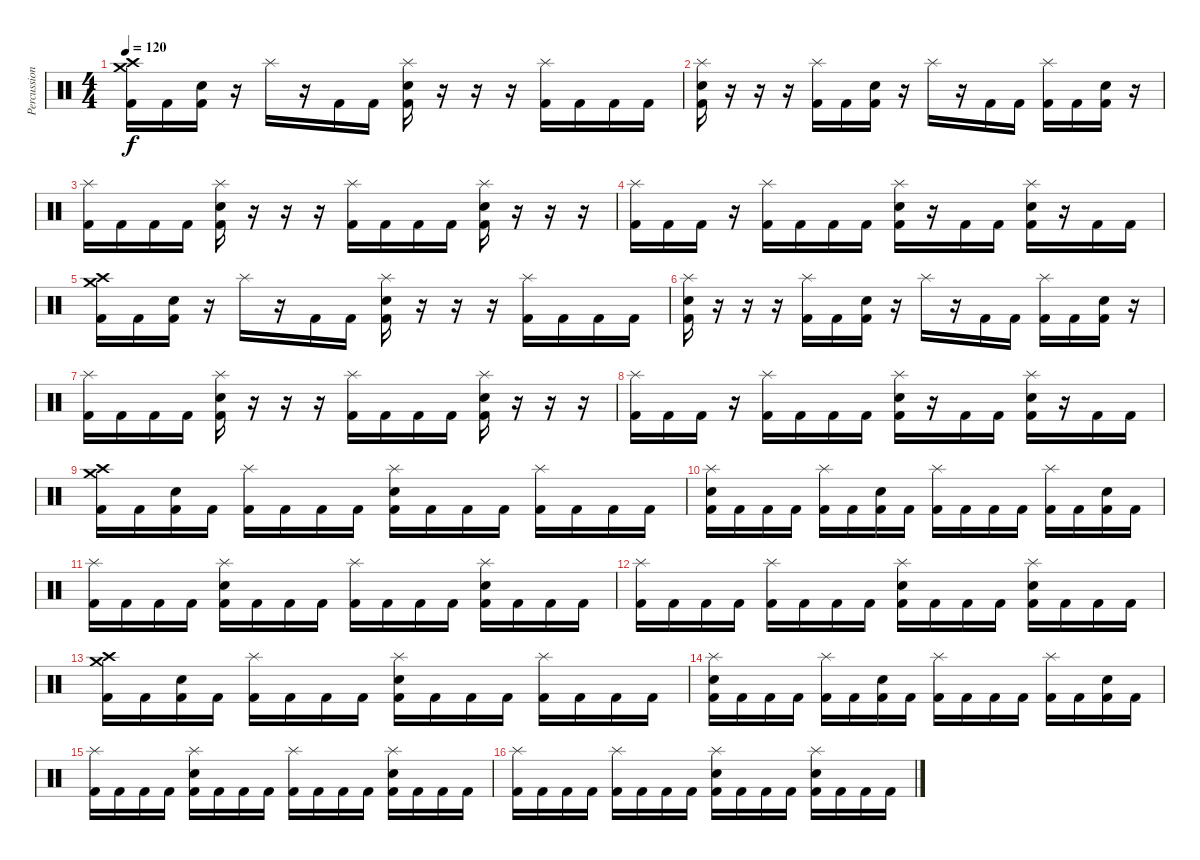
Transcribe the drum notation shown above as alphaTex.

\track ("Percussion" "Percussion") {instrument percussion}
\staff {score}
\articulation defaults
\ts (4 4)
\tempo 120
\clef neutral
\ks c
("Crash medium (hit)" "Crash high (hit)" "Kick (hit) 2").16{dy f} "Kick (hit) 2".16 ("Snare (hit) 2" "Kick (hit) 2").16 r.16 "Splash (hit)".16 r.16 "Kick (hit) 2".16 "Kick (hit) 2".16 ("Splash (hit)" "Snare (hit) 2" "Kick (hit) 2").16 r.16 r.16 r.16 ("Splash (hit)" "Kick (hit) 2").16 "Kick (hit) 2".16 "Kick (hit) 2".16 "Kick (hit) 2".16 |
("Splash (hit)" "Snare (hit) 2" "Kick (hit) 2").16 r.16 r.16 r.16 ("Splash (hit)" "Kick (hit) 2").16 "Kick (hit) 2".16 ("Snare (hit) 2" "Kick (hit) 2").16 r.16 "Splash (hit)".16 r.16 "Kick (hit) 2".16 "Kick (hit) 2".16 ("Splash (hit)" "Kick (hit) 2").16 "Kick (hit) 2".16 ("Snare (hit) 2" "Kick (hit) 2").16 r.16 |
("Splash (hit)" "Kick (hit) 2").16 "Kick (hit) 2".16 "Kick (hit) 2".16 "Kick (hit) 2".16 ("Splash (hit)" "Snare (hit) 2" "Kick (hit) 2").16 r.16 r.16 r.16 ("Splash (hit)" "Kick (hit) 2").16 "Kick (hit) 2".16 "Kick (hit) 2".16 "Kick (hit) 2".16 ("Splash (hit)" "Snare (hit) 2" "Kick (hit) 2").16 r.16 r.16 r.16 |
("Splash (hit)" "Kick (hit) 2").16 "Kick (hit) 2".16 "Kick (hit) 2".16 r.16 ("Splash (hit)" "Kick (hit) 2").16 "Kick (hit) 2".16 "Kick (hit) 2".16 "Kick (hit) 2".16 ("Splash (hit)" "Snare (hit) 2" "Kick (hit) 2").16 r.16 "Kick (hit) 2".16 "Kick (hit) 2".16 ("Splash (hit)" "Snare (hit) 2" "Kick (hit) 2").16 r.16 "Kick (hit) 2".16 "Kick (hit) 2".16 |
("Crash medium (hit)" "Crash high (hit)" "Kick (hit) 2").16 "Kick (hit) 2".16 ("Snare (hit) 2" "Kick (hit) 2").16 r.16 "Splash (hit)".16 r.16 "Kick (hit) 2".16 "Kick (hit) 2".16 ("Splash (hit)" "Snare (hit) 2" "Kick (hit) 2").16 r.16 r.16 r.16 ("Splash (hit)" "Kick (hit) 2").16 "Kick (hit) 2".16 "Kick (hit) 2".16 "Kick (hit) 2".16 |
("Splash (hit)" "Snare (hit) 2" "Kick (hit) 2").16 r.16 r.16 r.16 ("Splash (hit)" "Kick (hit) 2").16 "Kick (hit) 2".16 ("Snare (hit) 2" "Kick (hit) 2").16 r.16 "Splash (hit)".16 r.16 "Kick (hit) 2".16 "Kick (hit) 2".16 ("Splash (hit)" "Kick (hit) 2").16 "Kick (hit) 2".16 ("Snare (hit) 2" "Kick (hit) 2").16 r.16 |
("Splash (hit)" "Kick (hit) 2").16 "Kick (hit) 2".16 "Kick (hit) 2".16 "Kick (hit) 2".16 ("Splash (hit)" "Snare (hit) 2" "Kick (hit) 2").16 r.16 r.16 r.16 ("Splash (hit)" "Kick (hit) 2").16 "Kick (hit) 2".16 "Kick (hit) 2".16 "Kick (hit) 2".16 ("Splash (hit)" "Snare (hit) 2" "Kick (hit) 2").16 r.16 r.16 r.16 |
("Splash (hit)" "Kick (hit) 2").16 "Kick (hit) 2".16 "Kick (hit) 2".16 r.16 ("Splash (hit)" "Kick (hit) 2").16 "Kick (hit) 2".16 "Kick (hit) 2".16 "Kick (hit) 2".16 ("Splash (hit)" "Snare (hit) 2" "Kick (hit) 2").16 r.16 "Kick (hit) 2".16 "Kick (hit) 2".16 ("Splash (hit)" "Snare (hit) 2" "Kick (hit) 2").16 r.16 "Kick (hit) 2".16 "Kick (hit) 2".16 |
("Crash medium (hit)" "Crash high (hit)" "Kick (hit) 2").16 "Kick (hit) 2".16 ("Snare (hit) 2" "Kick (hit) 2").16 "Kick (hit) 2".16 ("Splash (hit)" "Kick (hit) 2").16 "Kick (hit) 2".16 "Kick (hit) 2".16 "Kick (hit) 2".16 ("Splash (hit)" "Snare (hit) 2" "Kick (hit) 2").16 "Kick (hit) 2".16 "Kick (hit) 2".16 "Kick (hit) 2".16 ("Splash (hit)" "Kick (hit) 2").16 "Kick (hit) 2".16 "Kick (hit) 2".16 "Kick (hit) 2".16 |
("Splash (hit)" "Snare (hit) 2" "Kick (hit) 2").16 "Kick (hit) 2".16 "Kick (hit) 2".16 "Kick (hit) 2".16 ("Splash (hit)" "Kick (hit) 2").16 "Kick (hit) 2".16 ("Snare (hit) 2" "Kick (hit) 2").16 "Kick (hit) 2".16 ("Splash (hit)" "Kick (hit) 2").16 "Kick (hit) 2".16 "Kick (hit) 2".16 "Kick (hit) 2".16 ("Splash (hit)" "Kick (hit) 2").16 "Kick (hit) 2".16 ("Snare (hit) 2" "Kick (hit) 2").16 "Kick (hit) 2".16 |
("Splash (hit)" "Kick (hit) 2").16 "Kick (hit) 2".16 "Kick (hit) 2".16 "Kick (hit) 2".16 ("Splash (hit)" "Snare (hit) 2" "Kick (hit) 2").16 "Kick (hit) 2".16 "Kick (hit) 2".16 "Kick (hit) 2".16 ("Splash (hit)" "Kick (hit) 2").16 "Kick (hit) 2".16 "Kick (hit) 2".16 "Kick (hit) 2".16 ("Splash (hit)" "Snare (hit) 2" "Kick (hit) 2").16 "Kick (hit) 2".16 "Kick (hit) 2".16 "Kick (hit) 2".16 |
("Splash (hit)" "Kick (hit) 2").16 "Kick (hit) 2".16 "Kick (hit) 2".16 "Kick (hit) 2".16 ("Splash (hit)" "Kick (hit) 2").16 "Kick (hit) 2".16 "Kick (hit) 2".16 "Kick (hit) 2".16 ("Splash (hit)" "Snare (hit) 2" "Kick (hit) 2").16 "Kick (hit) 2".16 "Kick (hit) 2".16 "Kick (hit) 2".16 ("Splash (hit)" "Snare (hit) 2" "Kick (hit) 2").16 "Kick (hit) 2".16 "Kick (hit) 2".16 "Kick (hit) 2".16 |
("Crash medium (hit)" "Crash high (hit)" "Kick (hit) 2").16 "Kick (hit) 2".16 ("Snare (hit) 2" "Kick (hit) 2").16 "Kick (hit) 2".16 ("Splash (hit)" "Kick (hit) 2").16 "Kick (hit) 2".16 "Kick (hit) 2".16 "Kick (hit) 2".16 ("Splash (hit)" "Snare (hit) 2" "Kick (hit) 2").16 "Kick (hit) 2".16 "Kick (hit) 2".16 "Kick (hit) 2".16 ("Splash (hit)" "Kick (hit) 2").16 "Kick (hit) 2".16 "Kick (hit) 2".16 "Kick (hit) 2".16 |
("Splash (hit)" "Snare (hit) 2" "Kick (hit) 2").16 "Kick (hit) 2".16 "Kick (hit) 2".16 "Kick (hit) 2".16 ("Splash (hit)" "Kick (hit) 2").16 "Kick (hit) 2".16 ("Snare (hit) 2" "Kick (hit) 2").16 "Kick (hit) 2".16 ("Splash (hit)" "Kick (hit) 2").16 "Kick (hit) 2".16 "Kick (hit) 2".16 "Kick (hit) 2".16 ("Splash (hit)" "Kick (hit) 2").16 "Kick (hit) 2".16 ("Snare (hit) 2" "Kick (hit) 2").16 "Kick (hit) 2".16 |
("Splash (hit)" "Kick (hit) 2").16 "Kick (hit) 2".16 "Kick (hit) 2".16 "Kick (hit) 2".16 ("Splash (hit)" "Snare (hit) 2" "Kick (hit) 2").16 "Kick (hit) 2".16 "Kick (hit) 2".16 "Kick (hit) 2".16 ("Splash (hit)" "Kick (hit) 2").16 "Kick (hit) 2".16 "Kick (hit) 2".16 "Kick (hit) 2".16 ("Splash (hit)" "Snare (hit) 2" "Kick (hit) 2").16 "Kick (hit) 2".16 "Kick (hit) 2".16 "Kick (hit) 2".16 |
("Splash (hit)" "Kick (hit) 2").16 "Kick (hit) 2".16 "Kick (hit) 2".16 "Kick (hit) 2".16 ("Splash (hit)" "Kick (hit) 2").16 "Kick (hit) 2".16 "Kick (hit) 2".16 "Kick (hit) 2".16 ("Splash (hit)" "Snare (hit) 2" "Kick (hit) 2").16 "Kick (hit) 2".16 "Kick (hit) 2".16 "Kick (hit) 2".16 ("Splash (hit)" "Snare (hit) 2" "Kick (hit) 2").16 "Kick (hit) 2".16 "Kick (hit) 2".16 "Kick (hit) 2".16
